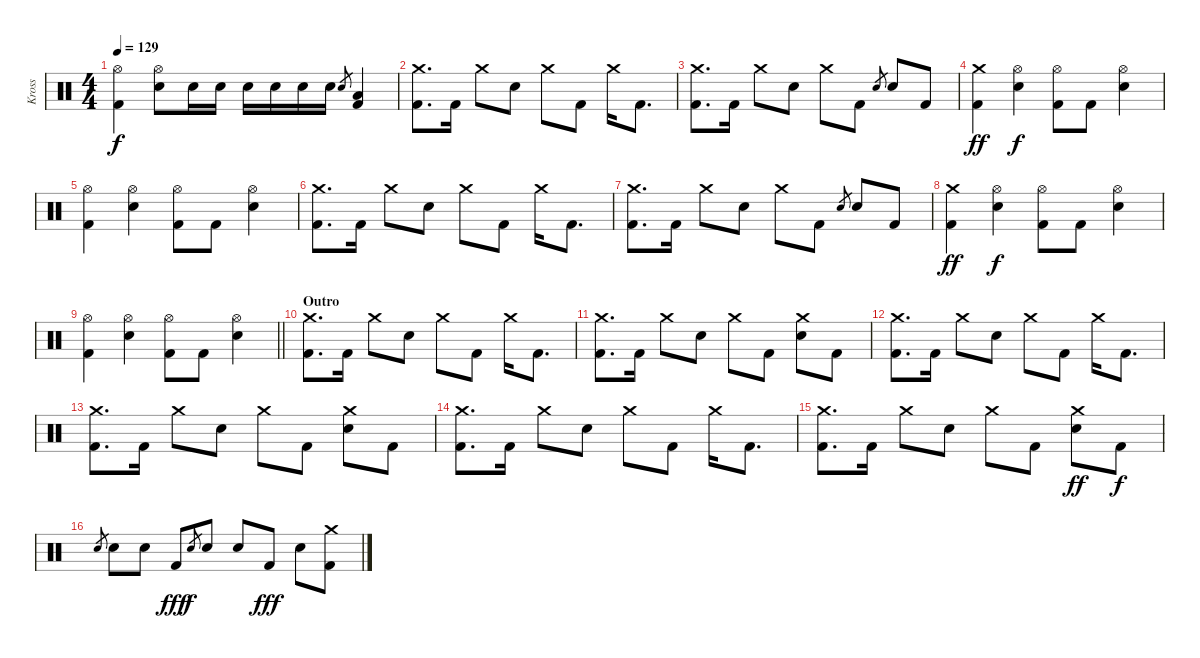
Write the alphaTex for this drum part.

\track ("Kross" "Kross") {instrument percussion}
\staff {score}
\articulation defaults
\ts (4 4)
\tempo 129
\clef neutral
\ks c
("Hi-Hat (open)" "Kick (hit) 2").4{dy f} ("Hi-Hat (open)" "Electric Snare (hit)").8 "Electric Snare (hit)".16 "Electric Snare (hit)".16 "Electric Snare (hit)".16 "Electric Snare (hit)".16 "Electric Snare (hit)".16 "Electric Snare (hit)".16 "Electric Snare (hit)".8{gr} ("Low Floor Tom (hit)" "Kick (hit) 2").4 |
("Crash medium (hit)" "Kick (hit) 2").8{d} "Kick (hit) 2".16 "Crash medium (hit)".8 "Electric Snare (hit)".8 "Crash medium (hit)".8 "Kick (hit) 2".8 "Crash medium (hit)".16 "Kick (hit) 2".8{d} |
("Crash medium (hit)" "Kick (hit) 2").8{d} "Kick (hit) 2".16 "Crash medium (hit)".8 "Electric Snare (hit)".8 "Crash medium (hit)".8 "Kick (hit) 2".8 "Electric Snare (hit)".8{gr} "Electric Snare (hit)".8 "Kick (hit) 2".8 |
("Crash medium (hit)" "Kick (hit) 2").4{dy ff} ("Hi-Hat (open)" "Electric Snare (hit)").4{dy f} ("Hi-Hat (open)" "Kick (hit) 2").8 "Kick (hit) 2".8 ("Hi-Hat (open)" "Electric Snare (hit)").4 |
("Hi-Hat (open)" "Kick (hit) 2").4 ("Hi-Hat (open)" "Electric Snare (hit)").4 ("Hi-Hat (open)" "Kick (hit) 2").8 "Kick (hit) 2".8 ("Hi-Hat (open)" "Electric Snare (hit)").4 |
("Crash medium (hit)" "Kick (hit) 2").8{d} "Kick (hit) 2".16 "Crash medium (hit)".8 "Electric Snare (hit)".8 "Crash medium (hit)".8 "Kick (hit) 2".8 "Crash medium (hit)".16 "Kick (hit) 2".8{d} |
("Crash medium (hit)" "Kick (hit) 2").8{d} "Kick (hit) 2".16 "Crash medium (hit)".8 "Electric Snare (hit)".8 "Crash medium (hit)".8 "Kick (hit) 2".8 "Electric Snare (hit)".8{gr} "Electric Snare (hit)".8 "Kick (hit) 2".8 |
("Crash medium (hit)" "Kick (hit) 2").4{dy ff} ("Hi-Hat (open)" "Electric Snare (hit)").4{dy f} ("Hi-Hat (open)" "Kick (hit) 2").8 "Kick (hit) 2".8 ("Hi-Hat (open)" "Electric Snare (hit)").4 |
\barLineRight lightlight
("Hi-Hat (open)" "Kick (hit) 2").4 ("Hi-Hat (open)" "Electric Snare (hit)").4 ("Hi-Hat (open)" "Kick (hit) 2").8 "Kick (hit) 2".8 ("Hi-Hat (open)" "Electric Snare (hit)").4 |
\section ("" "Outro")
("Crash medium (hit)" "Kick (hit) 2").8{d} "Kick (hit) 2".16 "Crash medium (hit)".8 "Electric Snare (hit)".8 "Crash medium (hit)".8 "Kick (hit) 2".8 "Crash medium (hit)".16 "Kick (hit) 2".8{d} |
("Crash medium (hit)" "Kick (hit) 2").8{d} "Kick (hit) 2".16 "Crash medium (hit)".8 "Electric Snare (hit)".8 "Crash medium (hit)".8 "Kick (hit) 2".8 ("Crash medium (hit)" "Electric Snare (hit)").8 "Kick (hit) 2".8 |
("Crash medium (hit)" "Kick (hit) 2").8{d} "Kick (hit) 2".16 "Crash medium (hit)".8 "Electric Snare (hit)".8 "Crash medium (hit)".8 "Kick (hit) 2".8 "Crash medium (hit)".16 "Kick (hit) 2".8{d} |
("Crash medium (hit)" "Kick (hit) 2").8{d} "Kick (hit) 2".16 "Crash medium (hit)".8 "Electric Snare (hit)".8 "Crash medium (hit)".8 "Kick (hit) 2".8 ("Crash medium (hit)" "Electric Snare (hit)").8 "Kick (hit) 2".8 |
("Crash medium (hit)" "Kick (hit) 2").8{d} "Kick (hit) 2".16 "Crash medium (hit)".8 "Electric Snare (hit)".8 "Crash medium (hit)".8 "Kick (hit) 2".8 "Crash medium (hit)".16 "Kick (hit) 2".8{d} |
("Crash medium (hit)" "Kick (hit) 2").8{d} "Kick (hit) 2".16 "Crash medium (hit)".8 "Electric Snare (hit)".8 "Crash medium (hit)".8 "Kick (hit) 2".8 ("Crash medium (hit)" "Electric Snare (hit)").8{dy ff} "Kick (hit) 2".8{dy f} |
"Electric Snare (hit)".8{gr} "Electric Snare (hit)".8 "Electric Snare (hit)".8 "Kick (hit) 2".8{dy fff} "Electric Snare (hit)".8{gr dy f} "Electric Snare (hit)".8 "Electric Snare (hit)".8 "Kick (hit) 2".8{dy fff} "Electric Snare (hit)".8 ("Crash medium (hit)" "Kick (hit) 2").8
